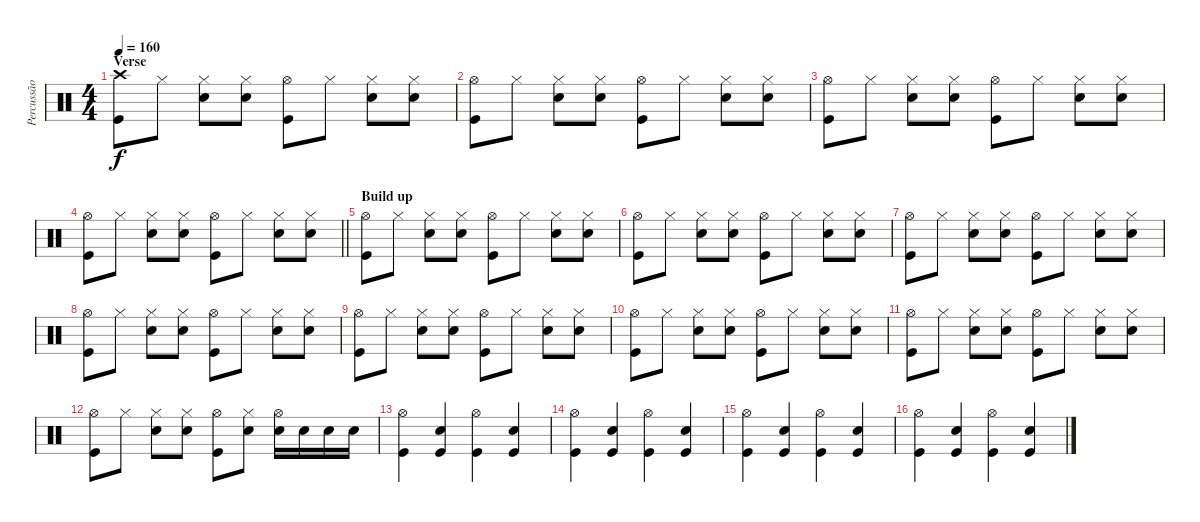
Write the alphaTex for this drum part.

\track ("Percussão" "Percussão") {instrument percussion}
\staff {score}
\articulation defaults
\ts (4 4)
\section ("" "Verse")
\tempo 160
\clef neutral
\ks c
("Crash high (hit)" "Kick (hit)").8{dy f} "Hi-Hat (closed)".8 ("Hi-Hat (closed)" "Snare (hit) 2").8 ("Hi-Hat (closed)" "Snare (hit) 2").8 ("Hi-Hat (open)" "Kick (hit)").8 "Hi-Hat (closed)".8 ("Hi-Hat (closed)" "Snare (hit) 2").8 ("Hi-Hat (closed)" "Snare (hit) 2").8 |
("Hi-Hat (open)" "Kick (hit)").8 "Hi-Hat (closed)".8 ("Hi-Hat (closed)" "Snare (hit) 2").8 ("Hi-Hat (closed)" "Snare (hit) 2").8 ("Hi-Hat (open)" "Kick (hit)").8 "Hi-Hat (closed)".8 ("Hi-Hat (closed)" "Snare (hit) 2").8 ("Hi-Hat (closed)" "Snare (hit) 2").8 |
("Hi-Hat (open)" "Kick (hit)").8 "Hi-Hat (closed)".8 ("Hi-Hat (closed)" "Snare (hit) 2").8 ("Hi-Hat (closed)" "Snare (hit) 2").8 ("Hi-Hat (open)" "Kick (hit)").8 "Hi-Hat (closed)".8 ("Hi-Hat (closed)" "Snare (hit) 2").8 ("Hi-Hat (closed)" "Snare (hit) 2").8 |
\barLineRight lightlight
("Hi-Hat (open)" "Kick (hit)").8 "Hi-Hat (closed)".8 ("Hi-Hat (closed)" "Snare (hit) 2").8 ("Hi-Hat (closed)" "Snare (hit) 2").8 ("Hi-Hat (open)" "Kick (hit)").8 "Hi-Hat (closed)".8 ("Hi-Hat (closed)" "Snare (hit) 2").8 ("Hi-Hat (closed)" "Snare (hit) 2").8 |
\section ("" "Build up")
("Hi-Hat (open)" "Kick (hit)").8 "Hi-Hat (closed)".8 ("Hi-Hat (closed)" "Snare (hit) 2").8 ("Hi-Hat (closed)" "Snare (hit) 2").8 ("Hi-Hat (open)" "Kick (hit)").8 "Hi-Hat (closed)".8 ("Hi-Hat (closed)" "Snare (hit) 2").8 ("Hi-Hat (closed)" "Snare (hit) 2").8 |
("Hi-Hat (open)" "Kick (hit)").8 "Hi-Hat (closed)".8 ("Hi-Hat (closed)" "Snare (hit) 2").8 ("Hi-Hat (closed)" "Snare (hit) 2").8 ("Hi-Hat (open)" "Kick (hit)").8 "Hi-Hat (closed)".8 ("Hi-Hat (closed)" "Snare (hit) 2").8 ("Hi-Hat (closed)" "Snare (hit) 2").8 |
("Hi-Hat (open)" "Kick (hit)").8 "Hi-Hat (closed)".8 ("Hi-Hat (closed)" "Snare (hit) 2").8 ("Hi-Hat (closed)" "Snare (hit) 2").8 ("Hi-Hat (open)" "Kick (hit)").8 "Hi-Hat (closed)".8 ("Hi-Hat (closed)" "Snare (hit) 2").8 ("Hi-Hat (closed)" "Snare (hit) 2").8 |
("Hi-Hat (open)" "Kick (hit)").8 "Hi-Hat (closed)".8 ("Hi-Hat (closed)" "Snare (hit) 2").8 ("Hi-Hat (closed)" "Snare (hit) 2").8 ("Hi-Hat (open)" "Kick (hit)").8 "Hi-Hat (closed)".8 ("Hi-Hat (closed)" "Snare (hit) 2").8 ("Hi-Hat (closed)" "Snare (hit) 2").8 |
("Hi-Hat (open)" "Kick (hit)").8 "Hi-Hat (closed)".8 ("Hi-Hat (closed)" "Snare (hit) 2").8 ("Hi-Hat (closed)" "Snare (hit) 2").8 ("Hi-Hat (open)" "Kick (hit)").8 "Hi-Hat (closed)".8 ("Hi-Hat (closed)" "Snare (hit) 2").8 ("Hi-Hat (closed)" "Snare (hit) 2").8 |
("Hi-Hat (open)" "Kick (hit)").8 "Hi-Hat (closed)".8 ("Hi-Hat (closed)" "Snare (hit) 2").8 ("Hi-Hat (closed)" "Snare (hit) 2").8 ("Hi-Hat (open)" "Kick (hit)").8 "Hi-Hat (closed)".8 ("Hi-Hat (closed)" "Snare (hit) 2").8 ("Hi-Hat (closed)" "Snare (hit) 2").8 |
("Hi-Hat (open)" "Kick (hit)").8 "Hi-Hat (closed)".8 ("Hi-Hat (closed)" "Snare (hit) 2").8 ("Hi-Hat (closed)" "Snare (hit) 2").8 ("Hi-Hat (open)" "Kick (hit)").8 "Hi-Hat (closed)".8 ("Hi-Hat (closed)" "Snare (hit) 2").8 ("Hi-Hat (closed)" "Snare (hit) 2").8 |
("Hi-Hat (open)" "Kick (hit)").8 "Hi-Hat (closed)".8 ("Hi-Hat (closed)" "Snare (hit) 2").8 ("Hi-Hat (closed)" "Snare (hit) 2").8 ("Hi-Hat (open)" "Kick (hit)").8 ("Hi-Hat (closed)" "Snare (hit) 2").8 ("Hi-Hat (open)" "Snare (hit) 2").16 "Snare (hit) 2".16 "Snare (hit) 2".16 "Snare (hit) 2".16 |
("Hi-Hat (open)" "Kick (hit)").4 ("Snare (hit) 2" "Kick (hit)").4 ("Hi-Hat (open)" "Kick (hit)").4 ("Snare (hit) 2" "Kick (hit)").4 |
("Hi-Hat (open)" "Kick (hit)").4 ("Snare (hit) 2" "Kick (hit)").4 ("Hi-Hat (open)" "Kick (hit)").4 ("Snare (hit) 2" "Kick (hit)").4 |
("Hi-Hat (open)" "Kick (hit)").4 ("Snare (hit) 2" "Kick (hit)").4 ("Hi-Hat (open)" "Kick (hit)").4 ("Snare (hit) 2" "Kick (hit)").4 |
("Hi-Hat (open)" "Kick (hit)").4 ("Snare (hit) 2" "Kick (hit)").4 ("Hi-Hat (open)" "Kick (hit)").4 ("Snare (hit) 2" "Kick (hit)").4
